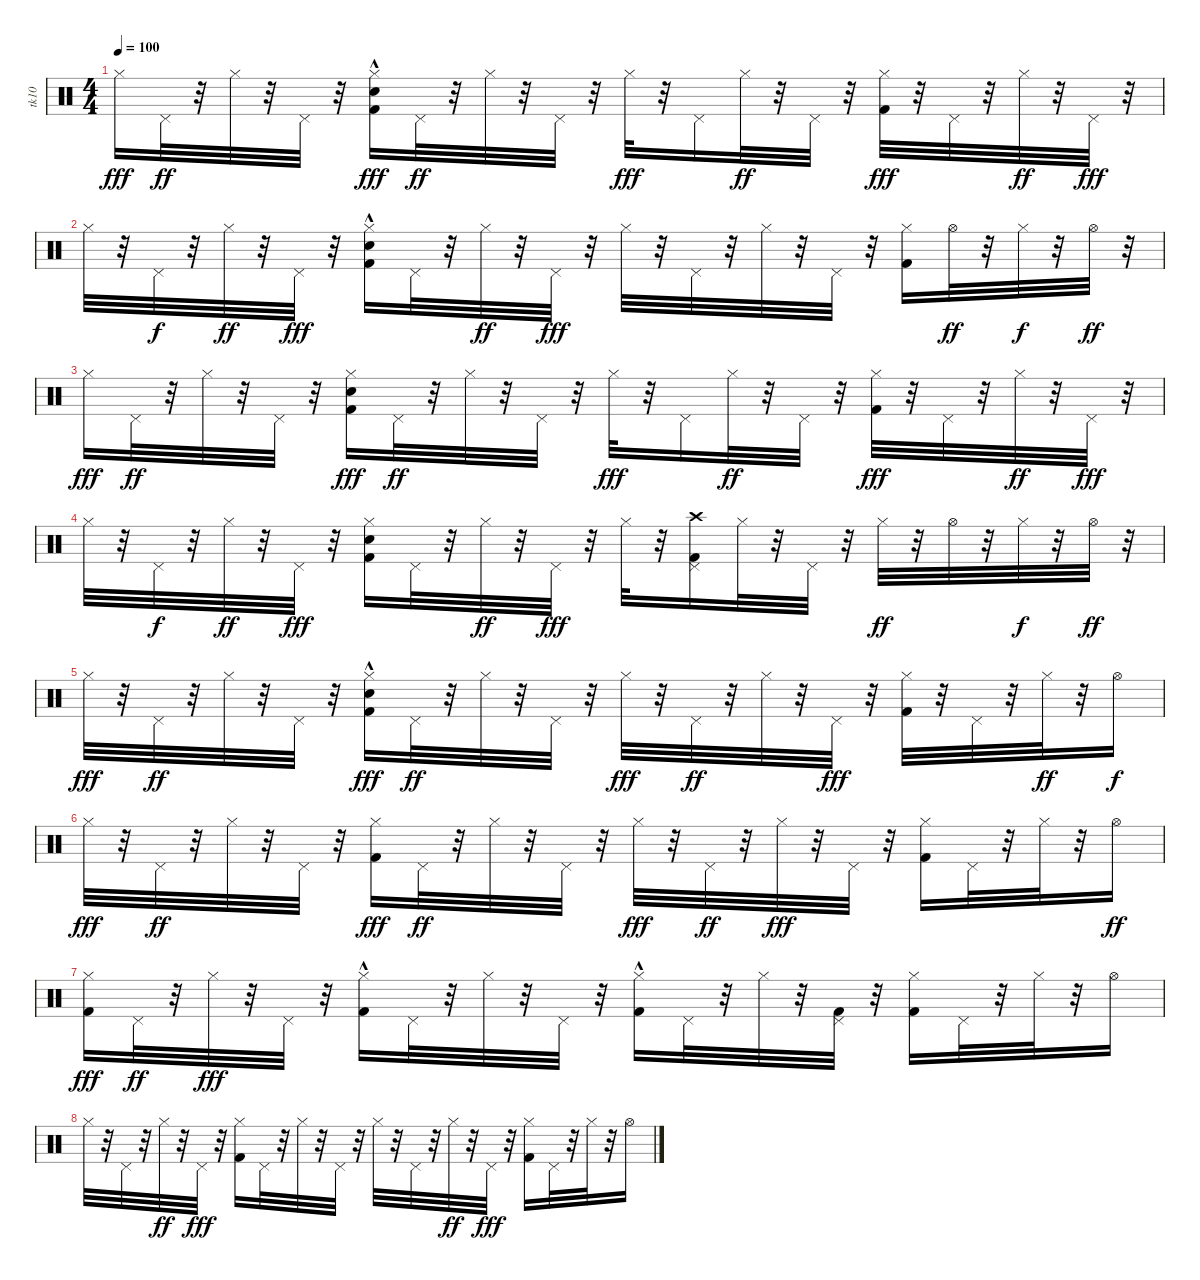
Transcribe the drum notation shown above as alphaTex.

\track ("tk10" "tk10") {instrument percussion}
\staff {score}
\articulation defaults
\ts (4 4)
\tempo 100
\clef neutral
\ks c "Hi-Hat (closed)".16{dy fff} "Pedal Hi-Hat (hit)".32{dy ff}
r.32 "Hi-Hat (closed)".32 r.32 "Pedal Hi-Hat (hit)".32 r.32 ("Kick (hit) 2" "Hi-Hat (closed)" "Snare (hit) 2"{hac}).16{dy fff} "Pedal Hi-Hat (hit)".32{dy ff} r.32 "Hi-Hat (closed)".32 r.32 "Pedal Hi-Hat (hit)".32 r.32 "Hi-Hat (closed)".32{dy fff} r.32 "Pedal Hi-Hat (hit)".16 "Hi-Hat (closed)".32{dy ff} r.32 "Pedal Hi-Hat (hit)".32 r.32 ("Hi-Hat (closed)" "Kick (hit) 2").32{dy fff} r.32 "Pedal Hi-Hat (hit)".32 r.32 "Hi-Hat (closed)".32{dy ff} r.32 "Pedal Hi-Hat (hit)".32{dy fff} r.32 |
"Hi-Hat (closed)".32 r.32 "Pedal Hi-Hat (hit)".32{dy f} r.32 "Hi-Hat (closed)".32{dy ff} r.32 "Pedal Hi-Hat (hit)".32{dy fff} r.32 ("Kick (hit) 2" "Hi-Hat (closed)" "Snare (hit) 2"{hac}).16 "Pedal Hi-Hat (hit)".32 r.32 "Hi-Hat (closed)".32{dy ff} r.32 "Pedal Hi-Hat (hit)".32{dy fff} r.32 "Hi-Hat (closed)".32 r.32 "Pedal Hi-Hat (hit)".32 r.32 "Hi-Hat (closed)".32 r.32 "Pedal Hi-Hat (hit)".32 r.32 ("Hi-Hat (closed)" "Kick (hit) 2").16 "Hi-Hat (open)".32{dy ff} r.32 "Hi-Hat (closed)".32{dy f} r.32 "Hi-Hat (open)".32{dy ff} r.32 |
"Hi-Hat (closed)".16{dy fff} "Pedal Hi-Hat (hit)".32{dy ff} r.32 "Hi-Hat (closed)".32 r.32 "Pedal Hi-Hat (hit)".32 r.32 ("Kick (hit) 2" "Hi-Hat (closed)" "Snare (hit) 2").16{dy fff} "Pedal Hi-Hat (hit)".32{dy ff} r.32 "Hi-Hat (closed)".32 r.32 "Pedal Hi-Hat (hit)".32 r.32 "Hi-Hat (closed)".32{dy fff} r.32 "Pedal Hi-Hat (hit)".16 "Hi-Hat (closed)".32{dy ff} r.32 "Pedal Hi-Hat (hit)".32 r.32 ("Hi-Hat (closed)" "Kick (hit) 2").32{dy fff} r.32 "Pedal Hi-Hat (hit)".32 r.32 "Hi-Hat (closed)".32{dy ff} r.32 "Pedal Hi-Hat (hit)".32{dy fff} r.32 |
"Hi-Hat (closed)".32 r.32 "Pedal Hi-Hat (hit)".32{dy f} r.32 "Hi-Hat (closed)".32{dy ff} r.32 "Pedal Hi-Hat (hit)".32{dy fff} r.32 ("Kick (hit) 2" "Hi-Hat (closed)" "Snare (hit) 2").16 "Pedal Hi-Hat (hit)".32 r.32 "Hi-Hat (closed)".32{dy ff} r.32 "Pedal Hi-Hat (hit)".32{dy fff} r.32 "Hi-Hat (closed)".32 r.32 ("Crash high (hit)" "Pedal Hi-Hat (hit)" "Kick (hit) 2").16 "Hi-Hat (closed)".32 r.32 "Pedal Hi-Hat (hit)".32 r.32 "Hi-Hat (closed)".32{dy ff} r.32 "Hi-Hat (open)".32 r.32 "Hi-Hat (closed)".32{dy f} r.32 "Hi-Hat (open)".32{dy ff} r.32 |
"Hi-Hat (closed)".32{dy fff} r.32 "Pedal Hi-Hat (hit)".32{dy ff} r.32 "Hi-Hat (closed)".32 r.32 "Pedal Hi-Hat (hit)".32 r.32 ("Kick (hit) 2" "Hi-Hat (closed)" "Snare (hit) 2"{hac}).16{dy fff} "Pedal Hi-Hat (hit)".32{dy ff} r.32 "Hi-Hat (closed)".32 r.32 "Pedal Hi-Hat (hit)".32 r.32 "Hi-Hat (closed)".32{dy fff} r.32 "Pedal Hi-Hat (hit)".32{dy ff} r.32 "Hi-Hat (closed)".32 r.32 "Pedal Hi-Hat (hit)".32{dy fff} r.32 ("Kick (hit) 2" "Hi-Hat (closed)").32 r.32 "Pedal Hi-Hat (hit)".32 r.32 "Hi-Hat (closed)".32{dy ff} r.32 "Hi-Hat (open)".16{dy f} |
"Hi-Hat (closed)".32{dy fff} r.32 "Pedal Hi-Hat (hit)".32{dy ff} r.32 "Hi-Hat (closed)".32 r.32 "Pedal Hi-Hat (hit)".32 r.32 ("Kick (hit) 2" "Hi-Hat (closed)").16{dy fff} "Pedal Hi-Hat (hit)".32{dy ff} r.32 "Hi-Hat (closed)".32 r.32 "Pedal Hi-Hat (hit)".32 r.32 "Hi-Hat (closed)".32{dy fff} r.32 "Pedal Hi-Hat (hit)".32{dy ff} r.32 "Hi-Hat (closed)".32{dy fff} r.32 "Pedal Hi-Hat (hit)".32 r.32 ("Kick (hit) 2" "Hi-Hat (closed)").16 "Pedal Hi-Hat (hit)".32 r.32 "Hi-Hat (closed)".32 r.32 "Hi-Hat (open)".16{dy ff} |
("Kick (hit) 2" "Hi-Hat (closed)").16{dy fff} "Pedal Hi-Hat (hit)".32{dy ff} r.32 "Hi-Hat (closed)".32{dy fff} r.32 "Pedal Hi-Hat (hit)".32 r.32 ("Kick (hit) 2"{hac} "Hi-Hat (closed)").16 "Pedal Hi-Hat (hit)".32 r.32 "Hi-Hat (closed)".32 r.32 "Pedal Hi-Hat (hit)".32 r.32 ("Kick (hit) 2"{hac} "Hi-Hat (closed)").16 "Pedal Hi-Hat (hit)".32 r.32 "Hi-Hat (closed)".32 r.32 ("Kick (hit) 2" "Pedal Hi-Hat (hit)").32 r.32 ("Kick (hit) 2" "Hi-Hat (closed)").16 "Pedal Hi-Hat (hit)".32 r.32 "Hi-Hat (closed)".32 r.32 "Hi-Hat (open)".16 |
"Hi-Hat (closed)".32 r.32 "Pedal Hi-Hat (hit)".32 r.32 "Hi-Hat (closed)".32{dy ff} r.32 "Pedal Hi-Hat (hit)".32{dy fff} r.32 ("Hi-Hat (closed)" "Kick (hit) 2").16 "Pedal Hi-Hat (hit)".32 r.32 "Hi-Hat (closed)".32 r.32 "Pedal Hi-Hat (hit)".32 r.32 "Hi-Hat (closed)".32 r.32 "Pedal Hi-Hat (hit)".32 r.32 "Hi-Hat (closed)".32{dy ff} r.32 "Pedal Hi-Hat (hit)".32{dy fff} r.32 ("Kick (hit) 2" "Hi-Hat (closed)").16 "Pedal Hi-Hat (hit)".32 r.32 "Hi-Hat (closed)".32 r.32 "Hi-Hat (open)".16
